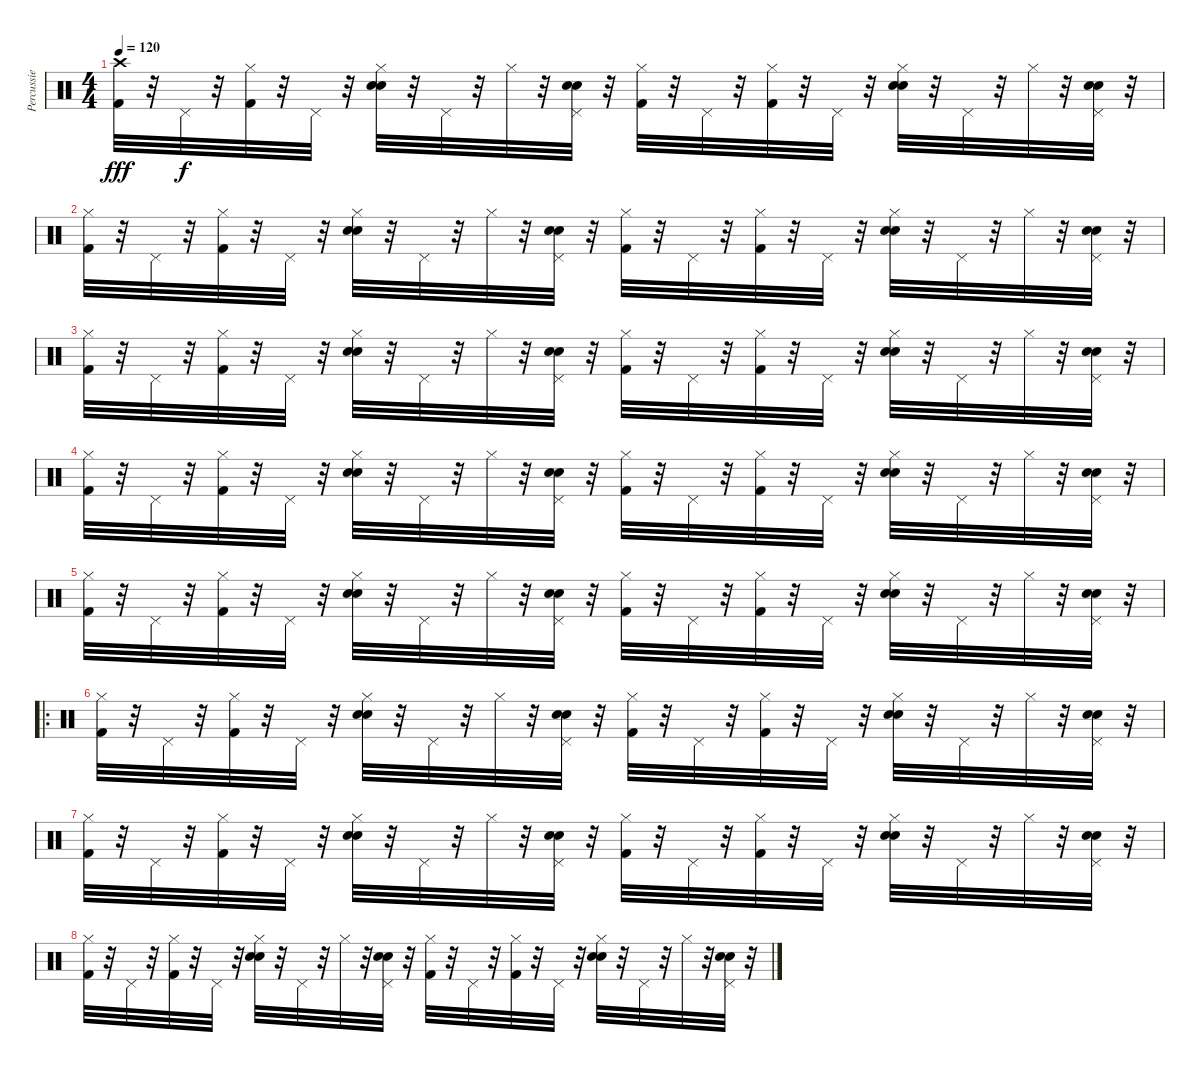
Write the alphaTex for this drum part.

\track ("Percussie" "Percussie") {instrument percussion}
\staff {score}
\articulation defaults
\ts (4 4)
\tempo 120
\clef neutral
\ks c
("Kick (hit) 2" "Crash high (hit)").32{dy fff} r.32 "Pedal Hi-Hat (hit)".32{dy f} r.32 ("Kick (hit) 2" "Hi-Hat (closed)").32 r.32 "Pedal Hi-Hat (hit)".32 r.32 ("Snare (hit) 2" "Electric Snare (hit)" "Hi-Hat (closed)").32 r.32 "Pedal Hi-Hat (hit)".32 r.32 "Hi-Hat (closed)".32 r.32 ("Snare (hit) 2" "Electric Snare (hit)" "Pedal Hi-Hat (hit)").32 r.32 ("Kick (hit) 2" "Hi-Hat (closed)").32 r.32 "Pedal Hi-Hat (hit)".32 r.32 ("Kick (hit) 2" "Hi-Hat (closed)").32 r.32 "Pedal Hi-Hat (hit)".32 r.32 ("Electric Snare (hit)" "Snare (hit) 2" "Hi-Hat (closed)").32 r.32 "Pedal Hi-Hat (hit)".32 r.32 "Hi-Hat (closed)".32 r.32 ("Pedal Hi-Hat (hit)" "Snare (hit) 2" "Electric Snare (hit)").32 r.32 |
("Hi-Hat (closed)" "Kick (hit) 2").32 r.32 "Pedal Hi-Hat (hit)".32 r.32 ("Kick (hit) 2" "Hi-Hat (closed)").32 r.32 "Pedal Hi-Hat (hit)".32 r.32 ("Snare (hit) 2" "Electric Snare (hit)" "Hi-Hat (closed)").32 r.32 "Pedal Hi-Hat (hit)".32 r.32 "Hi-Hat (closed)".32 r.32 ("Snare (hit) 2" "Electric Snare (hit)" "Pedal Hi-Hat (hit)").32 r.32 ("Kick (hit) 2" "Hi-Hat (closed)").32 r.32 "Pedal Hi-Hat (hit)".32 r.32 ("Kick (hit) 2" "Hi-Hat (closed)").32 r.32 "Pedal Hi-Hat (hit)".32 r.32 ("Electric Snare (hit)" "Snare (hit) 2" "Hi-Hat (closed)").32 r.32 "Pedal Hi-Hat (hit)".32 r.32 "Hi-Hat (closed)".32 r.32 ("Pedal Hi-Hat (hit)" "Snare (hit) 2" "Electric Snare (hit)").32 r.32 |
("Hi-Hat (closed)" "Kick (hit) 2").32 r.32 "Pedal Hi-Hat (hit)".32 r.32 ("Kick (hit) 2" "Hi-Hat (closed)").32 r.32 "Pedal Hi-Hat (hit)".32 r.32 ("Snare (hit) 2" "Electric Snare (hit)" "Hi-Hat (closed)").32 r.32 "Pedal Hi-Hat (hit)".32 r.32 "Hi-Hat (closed)".32 r.32 ("Snare (hit) 2" "Electric Snare (hit)" "Pedal Hi-Hat (hit)").32 r.32 ("Kick (hit) 2" "Hi-Hat (closed)").32 r.32 "Pedal Hi-Hat (hit)".32 r.32 ("Kick (hit) 2" "Hi-Hat (closed)").32 r.32 "Pedal Hi-Hat (hit)".32 r.32 ("Electric Snare (hit)" "Snare (hit) 2" "Hi-Hat (closed)").32 r.32 "Pedal Hi-Hat (hit)".32 r.32 "Hi-Hat (closed)".32 r.32 ("Pedal Hi-Hat (hit)" "Snare (hit) 2" "Electric Snare (hit)").32 r.32 |
("Hi-Hat (closed)" "Kick (hit) 2").32 r.32 "Pedal Hi-Hat (hit)".32 r.32 ("Kick (hit) 2" "Hi-Hat (closed)").32 r.32 "Pedal Hi-Hat (hit)".32 r.32 ("Snare (hit) 2" "Electric Snare (hit)" "Hi-Hat (closed)").32 r.32 "Pedal Hi-Hat (hit)".32 r.32 "Hi-Hat (closed)".32 r.32 ("Snare (hit) 2" "Electric Snare (hit)" "Pedal Hi-Hat (hit)").32 r.32 ("Kick (hit) 2" "Hi-Hat (closed)").32 r.32 "Pedal Hi-Hat (hit)".32 r.32 ("Kick (hit) 2" "Hi-Hat (closed)").32 r.32 "Pedal Hi-Hat (hit)".32 r.32 ("Electric Snare (hit)" "Snare (hit) 2" "Hi-Hat (closed)").32 r.32 "Pedal Hi-Hat (hit)".32 r.32 "Hi-Hat (closed)".32 r.32 ("Pedal Hi-Hat (hit)" "Snare (hit) 2" "Electric Snare (hit)").32 r.32 |
("Hi-Hat (closed)" "Kick (hit) 2").32 r.32 "Pedal Hi-Hat (hit)".32 r.32 ("Kick (hit) 2" "Hi-Hat (closed)").32 r.32 "Pedal Hi-Hat (hit)".32 r.32 ("Snare (hit) 2" "Electric Snare (hit)" "Hi-Hat (closed)").32 r.32 "Pedal Hi-Hat (hit)".32 r.32 "Hi-Hat (closed)".32 r.32 ("Snare (hit) 2" "Electric Snare (hit)" "Pedal Hi-Hat (hit)").32 r.32 ("Kick (hit) 2" "Hi-Hat (closed)").32 r.32 "Pedal Hi-Hat (hit)".32 r.32 ("Kick (hit) 2" "Hi-Hat (closed)").32 r.32 "Pedal Hi-Hat (hit)".32 r.32 ("Electric Snare (hit)" "Snare (hit) 2" "Hi-Hat (closed)").32 r.32 "Pedal Hi-Hat (hit)".32 r.32 "Hi-Hat (closed)".32 r.32 ("Pedal Hi-Hat (hit)" "Snare (hit) 2" "Electric Snare (hit)").32 r.32 |
\ro
("Hi-Hat (closed)" "Kick (hit) 2").32 r.32 "Pedal Hi-Hat (hit)".32 r.32 ("Kick (hit) 2" "Hi-Hat (closed)").32 r.32 "Pedal Hi-Hat (hit)".32 r.32 ("Snare (hit) 2" "Electric Snare (hit)" "Hi-Hat (closed)").32 r.32 "Pedal Hi-Hat (hit)".32 r.32 "Hi-Hat (closed)".32 r.32 ("Snare (hit) 2" "Electric Snare (hit)" "Pedal Hi-Hat (hit)").32 r.32 ("Kick (hit) 2" "Hi-Hat (closed)").32 r.32 "Pedal Hi-Hat (hit)".32 r.32 ("Kick (hit) 2" "Hi-Hat (closed)").32 r.32 "Pedal Hi-Hat (hit)".32 r.32 ("Electric Snare (hit)" "Snare (hit) 2" "Hi-Hat (closed)").32 r.32 "Pedal Hi-Hat (hit)".32 r.32 "Hi-Hat (closed)".32 r.32 ("Pedal Hi-Hat (hit)" "Snare (hit) 2" "Electric Snare (hit)").32 r.32 |
("Hi-Hat (closed)" "Kick (hit) 2").32 r.32 "Pedal Hi-Hat (hit)".32 r.32 ("Kick (hit) 2" "Hi-Hat (closed)").32 r.32 "Pedal Hi-Hat (hit)".32 r.32 ("Snare (hit) 2" "Electric Snare (hit)" "Hi-Hat (closed)").32 r.32 "Pedal Hi-Hat (hit)".32 r.32 "Hi-Hat (closed)".32 r.32 ("Snare (hit) 2" "Electric Snare (hit)" "Pedal Hi-Hat (hit)").32 r.32 ("Kick (hit) 2" "Hi-Hat (closed)").32 r.32 "Pedal Hi-Hat (hit)".32 r.32 ("Kick (hit) 2" "Hi-Hat (closed)").32 r.32 "Pedal Hi-Hat (hit)".32 r.32 ("Electric Snare (hit)" "Snare (hit) 2" "Hi-Hat (closed)").32 r.32 "Pedal Hi-Hat (hit)".32 r.32 "Hi-Hat (closed)".32 r.32 ("Pedal Hi-Hat (hit)" "Snare (hit) 2" "Electric Snare (hit)").32 r.32 |
("Hi-Hat (closed)" "Kick (hit) 2").32 r.32 "Pedal Hi-Hat (hit)".32 r.32 ("Kick (hit) 2" "Hi-Hat (closed)").32 r.32 "Pedal Hi-Hat (hit)".32 r.32 ("Snare (hit) 2" "Electric Snare (hit)" "Hi-Hat (closed)").32 r.32 "Pedal Hi-Hat (hit)".32 r.32 "Hi-Hat (closed)".32 r.32 ("Snare (hit) 2" "Electric Snare (hit)" "Pedal Hi-Hat (hit)").32 r.32 ("Kick (hit) 2" "Hi-Hat (closed)").32 r.32 "Pedal Hi-Hat (hit)".32 r.32 ("Kick (hit) 2" "Hi-Hat (closed)").32 r.32 "Pedal Hi-Hat (hit)".32 r.32 ("Electric Snare (hit)" "Snare (hit) 2" "Hi-Hat (closed)").32 r.32 "Pedal Hi-Hat (hit)".32 r.32 "Hi-Hat (closed)".32 r.32 ("Pedal Hi-Hat (hit)" "Snare (hit) 2" "Electric Snare (hit)").32 r.32
